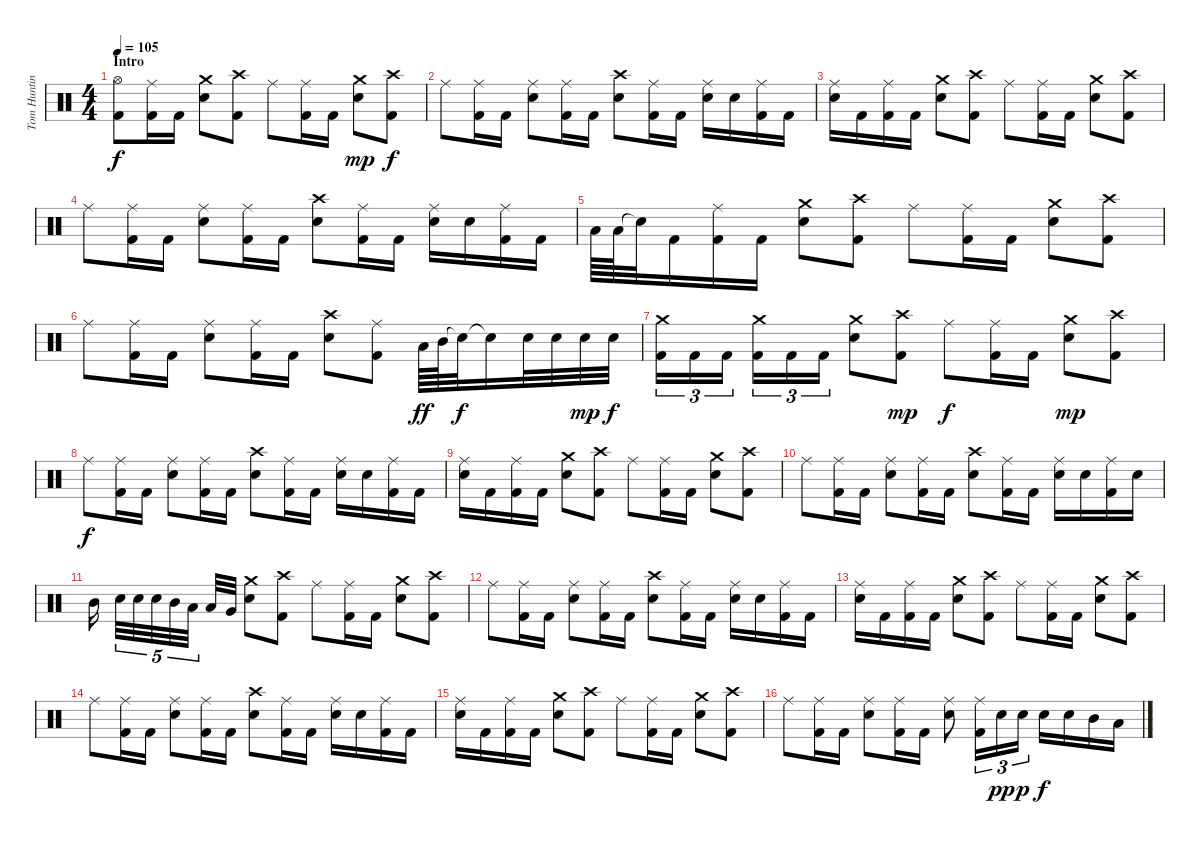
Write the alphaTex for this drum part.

\track ("Tom Hunting" "Tom Huntin") {instrument percussion}
\staff {score}
\articulation defaults
\ts (4 4)
\section ("" "Intro")
\tempo 105
\clef neutral
\ks c
("Kick (hit) 2" "Hi-Hat (open)").8{dy f} ("Kick (hit) 2" "Ride (middle)").16 "Kick (hit) 2".16 ("Crash medium (hit)" "Snare (hit) 2").8 ("Kick (hit) 2" "Crash high (hit)").8 "Ride (middle)".8 ("Kick (hit) 2" "Ride (middle)").16 "Kick (hit) 2".16 ("Crash medium (hit)" "Snare (hit) 2").8{dy mp} ("Kick (hit) 2" "Crash high (hit)").8{dy f} |
"Ride (middle)".8 ("Kick (hit) 2" "Ride (middle)").16 "Kick (hit) 2".16 ("Ride (middle)" "Snare (hit) 2").8 ("Kick (hit) 2" "Ride (middle)").16 "Kick (hit) 2".16 ("Crash high (hit)" "Snare (hit) 2").8 ("Kick (hit) 2" "Ride (middle)").16 "Kick (hit) 2".16 ("Ride (middle)" "Snare (hit) 2").16 "Snare (hit) 2".16 ("Kick (hit) 2" "Ride (middle)").16 "Kick (hit) 2".16 |
("Ride (middle)" "Snare (hit) 2").16 "Kick (hit) 2".16 ("Kick (hit) 2" "Ride (middle)").16 "Kick (hit) 2".16 ("Crash medium (hit)" "Snare (hit) 2").8 ("Kick (hit) 2" "Crash high (hit)").8 "Ride (middle)".8 ("Kick (hit) 2" "Ride (middle)").16 "Kick (hit) 2".16 ("Crash medium (hit)" "Snare (hit) 2").8 ("Kick (hit) 2" "Crash high (hit)").8 |
"Ride (middle)".8 ("Kick (hit) 2" "Ride (middle)").16 "Kick (hit) 2".16 ("Ride (middle)" "Snare (hit) 2").8 ("Kick (hit) 2" "Ride (middle)").16 "Kick (hit) 2".16 ("Crash high (hit)" "Snare (hit) 2").8 ("Kick (hit) 2" "Ride (middle)").16 "Kick (hit) 2".16 ("Ride (middle)" "Snare (hit) 2").16 "Snare (hit) 2".16 ("Kick (hit) 2" "Ride (middle)").16 "Kick (hit) 2".16 |
"Low Tom (hit)".64 "Low Tom (hit)".64 "Snare (hit)"{t}.32 "Kick (hit) 2".16 ("Kick (hit) 2" "Ride (middle)").16 "Kick (hit) 2".16 ("Crash medium (hit)" "Snare (hit) 2").8 ("Kick (hit) 2" "Crash high (hit)").8 "Ride (middle)".8 ("Kick (hit) 2" "Ride (middle)").16 "Kick (hit) 2".16 ("Crash medium (hit)" "Snare (hit) 2").8 ("Kick (hit) 2" "Crash high (hit)").8 |
"Ride (middle)".8 ("Kick (hit) 2" "Ride (middle)").16 "Kick (hit) 2".16 ("Ride (middle)" "Snare (hit) 2").8 ("Kick (hit) 2" "Ride (middle)").16 "Kick (hit) 2".16 ("Snare (hit) 2" "Crash high (hit)").8 ("Kick (hit) 2" "Ride (middle)").8 "Low Tom (hit)".64{dy ff} "Mid Tom (hit)".64 "Snare (hit)"{t}.32{dy f} "Snare (hit)"{t}.16 "Snare (hit) 2".32 "Snare (hit) 2".32 "Snare (hit) 2".32{dy mp} "Snare (hit) 2".32{dy f} |
("Kick (hit) 2" "Crash medium (hit)").16{tu (3 2)} "Kick (hit) 2".16{tu (3 2)} "Kick (hit) 2".16{tu (3 2)} ("Kick (hit) 2" "Crash medium (hit)").16{tu (3 2)} "Kick (hit) 2".16{tu (3 2)} "Kick (hit) 2".16{tu (3 2)} ("Crash medium (hit)" "Snare (hit) 2").8 ("Kick (hit) 2" "Crash high (hit)").8{dy mp} "Ride (middle)".8{dy f} ("Kick (hit) 2" "Ride (middle)").16 "Kick (hit) 2".16 ("Crash medium (hit)" "Snare (hit) 2").8{dy mp} ("Kick (hit) 2" "Crash high (hit)").8 |
"Ride (middle)".8{dy f} ("Kick (hit) 2" "Ride (middle)").16 "Kick (hit) 2".16 ("Ride (middle)" "Snare (hit) 2").8 ("Kick (hit) 2" "Ride (middle)").16 "Kick (hit) 2".16 ("Crash high (hit)" "Snare (hit) 2").8 ("Kick (hit) 2" "Ride (middle)").16 "Kick (hit) 2".16 ("Ride (middle)" "Snare (hit) 2").16 "Snare (hit) 2".16 ("Kick (hit) 2" "Ride (middle)").16 "Kick (hit) 2".16 |
("Ride (middle)" "Snare (hit) 2").16 "Kick (hit) 2".16 ("Kick (hit) 2" "Ride (middle)").16 "Kick (hit) 2".16 ("Crash medium (hit)" "Snare (hit) 2").8 ("Kick (hit) 2" "Crash high (hit)").8 "Ride (middle)".8 ("Kick (hit) 2" "Ride (middle)").16 "Kick (hit) 2".16 ("Crash medium (hit)" "Snare (hit) 2").8 ("Kick (hit) 2" "Crash high (hit)").8 |
"Ride (middle)".8 ("Kick (hit) 2" "Ride (middle)").16 "Kick (hit) 2".16 ("Ride (middle)" "Snare (hit) 2").8 ("Kick (hit) 2" "Ride (middle)").16 "Kick (hit) 2".16 ("Crash high (hit)" "Snare (hit) 2").8 ("Kick (hit) 2" "Ride (middle)").16 "Kick (hit) 2".16 ("Ride (middle)" "Snare (hit) 2").16 "Snare (hit) 2".16 ("Kick (hit) 2" "Ride (middle)").16 "Snare (hit) 2".16 |
"Mid Tom (hit)".16 "Snare (hit) 2".32{tu (5 4)} "Snare (hit) 2".32{tu (5 4)} "Snare (hit) 2".32{tu (5 4)} "Mid Tom (hit)".32{tu (5 4)} "Low Tom (hit)".32{tu (5 4)} "Low Tom (hit)".32 "Very Low Tom (hit)".32 ("Crash medium (hit)" "Snare (hit) 2").8 ("Kick (hit) 2" "Crash high (hit)").8 "Ride (middle)".8 ("Kick (hit) 2" "Ride (middle)").16 "Kick (hit) 2".16 ("Crash medium (hit)" "Snare (hit) 2").8 ("Kick (hit) 2" "Crash high (hit)").8 |
"Ride (middle)".8 ("Kick (hit) 2" "Ride (middle)").16 "Kick (hit) 2".16 ("Ride (middle)" "Snare (hit) 2").8 ("Kick (hit) 2" "Ride (middle)").16 "Kick (hit) 2".16 ("Crash high (hit)" "Snare (hit) 2").8 ("Kick (hit) 2" "Ride (middle)").16 "Kick (hit) 2".16 ("Ride (middle)" "Snare (hit) 2").16 "Snare (hit) 2".16 ("Kick (hit) 2" "Ride (middle)").16 "Kick (hit) 2".16 |
("Ride (middle)" "Snare (hit) 2").16 "Kick (hit) 2".16 ("Kick (hit) 2" "Ride (middle)").16 "Kick (hit) 2".16 ("Crash medium (hit)" "Snare (hit) 2").8 ("Kick (hit) 2" "Crash high (hit)").8 "Ride (middle)".8 ("Kick (hit) 2" "Ride (middle)").16 "Kick (hit) 2".16 ("Crash medium (hit)" "Snare (hit) 2").8 ("Kick (hit) 2" "Crash high (hit)").8 |
"Ride (middle)".8 ("Kick (hit) 2" "Ride (middle)").16 "Kick (hit) 2".16 ("Ride (middle)" "Snare (hit) 2").8 ("Kick (hit) 2" "Ride (middle)").16 "Kick (hit) 2".16 ("Crash high (hit)" "Snare (hit) 2").8 ("Kick (hit) 2" "Ride (middle)").16 "Kick (hit) 2".16 ("Ride (middle)" "Snare (hit) 2").16 "Snare (hit) 2".16 ("Kick (hit) 2" "Ride (middle)").16 "Kick (hit) 2".16 |
("Ride (middle)" "Snare (hit) 2").16 "Kick (hit) 2".16 ("Kick (hit) 2" "Ride (middle)").16 "Kick (hit) 2".16 ("Crash medium (hit)" "Snare (hit) 2").8 ("Kick (hit) 2" "Crash high (hit)").8 "Ride (middle)".8 ("Kick (hit) 2" "Ride (middle)").16 "Kick (hit) 2".16 ("Crash medium (hit)" "Snare (hit) 2").8 ("Kick (hit) 2" "Crash high (hit)").8 |
"Ride (middle)".8 ("Kick (hit) 2" "Ride (middle)").16 "Kick (hit) 2".16 ("Ride (middle)" "Snare (hit) 2").8 ("Kick (hit) 2" "Ride (middle)").16 "Kick (hit) 2".16 ("Ride (middle)" "Snare (hit) 2").8 ("Kick (hit) 2" "Ride (middle)").16{tu (3 2)} "Snare (hit) 2".16{tu (3 2) dy pp} "Snare (hit) 2".16{tu (3 2) dy p} "Snare (hit) 2".16{dy f} "Snare (hit) 2".16 "Mid Tom (hit)".16 "Low Tom (hit)".16
